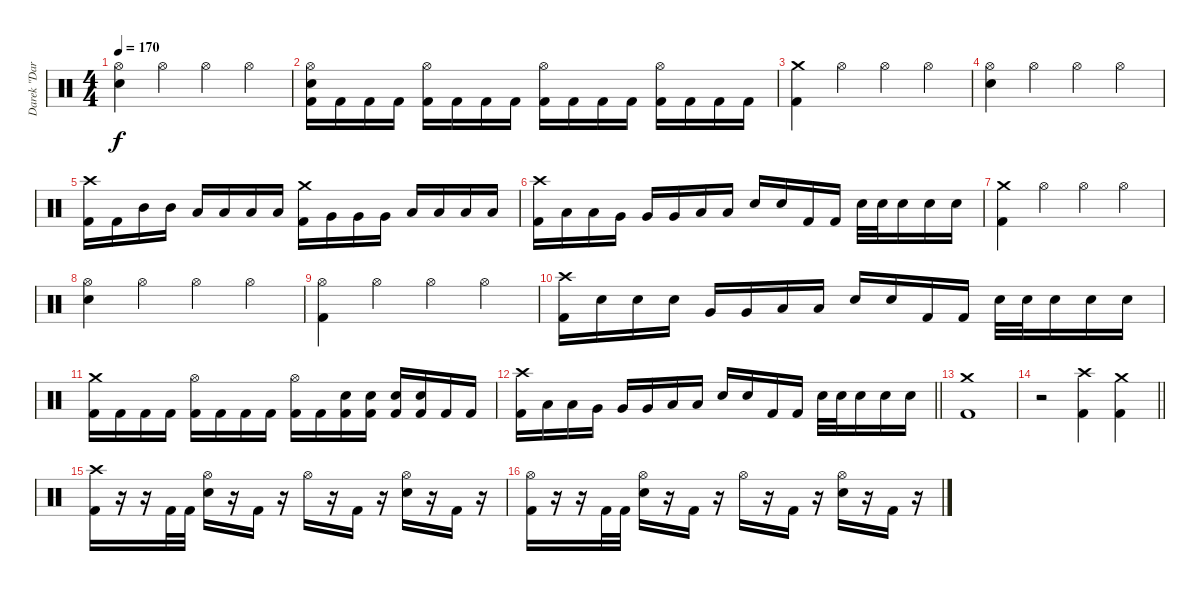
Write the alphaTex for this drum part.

\track ("Darek \"Daray\" Brzozowski " "Darek \"Dar") {instrument percussion}
\staff {score}
\articulation defaults
\ts (4 4)
\tempo 170
\clef neutral
\ks c
("Hi-Hat (open)" "Electric Snare (hit)").4{dy f} "Hi-Hat (open)".4 "Hi-Hat (open)".4 "Hi-Hat (open)".4 |
("Hi-Hat (open)" "Electric Snare (hit)" "Kick (hit) 2").16 "Kick (hit) 2".16 "Kick (hit) 2".16 "Kick (hit) 2".16 ("Hi-Hat (open)" "Kick (hit) 2").16 "Kick (hit) 2".16 "Kick (hit) 2".16 "Kick (hit) 2".16 ("Hi-Hat (open)" "Kick (hit) 2").16 "Kick (hit) 2".16 "Kick (hit) 2".16 "Kick (hit) 2".16 ("Hi-Hat (open)" "Kick (hit) 2").16 "Kick (hit) 2".16 "Kick (hit) 2".16 "Kick (hit) 2".16 |
("Crash medium (hit)" "Kick (hit) 2").4 "Hi-Hat (open)".4 "Hi-Hat (open)".4 "Hi-Hat (open)".4 |
("Hi-Hat (open)" "Electric Snare (hit)").4 "Hi-Hat (open)".4 "Hi-Hat (open)".4 "Hi-Hat (open)".4 |
("Crash high (hit)" "Kick (hit) 2").16 "Kick (hit) 2".16 "Mid Tom (hit)".16 "Mid Tom (hit)".16 "Low Tom (hit)".16 "Low Tom (hit)".16 "Low Tom (hit)".16 "Low Tom (hit)".16 ("Crash medium (hit)" "Kick (hit) 2").16 "Very Low Tom (hit)".16 "Very Low Tom (hit)".16 "Very Low Tom (hit)".16 "Low Floor Tom (hit)".16 "Low Floor Tom (hit)".16 "Low Floor Tom (hit)".16 "Low Floor Tom (hit)".16 |
("Crash high (hit)" "Kick (hit) 2").16 "Low Tom (hit)".16 "Low Tom (hit)".16 "Very Low Tom (hit)".16 "Very Low Tom (hit)".16 "Very Low Tom (hit)".16 "Low Floor Tom (hit)".16 "Low Floor Tom (hit)".16 "Electric Snare (hit)".16 "Electric Snare (hit)".16 "Kick (hit) 2".16 "Kick (hit) 2".16 "Electric Snare (hit)".32 "Electric Snare (hit)".32 "Electric Snare (hit)".16 "Electric Snare (hit)".16 "Electric Snare (hit)".16 |
("Crash medium (hit)" "Kick (hit) 2").4 "Hi-Hat (open)".4 "Hi-Hat (open)".4 "Hi-Hat (open)".4 |
("Hi-Hat (open)" "Electric Snare (hit)").4 "Hi-Hat (open)".4 "Hi-Hat (open)".4 "Hi-Hat (open)".4 |
("Hi-Hat (open)" "Kick (hit) 2").4 "Hi-Hat (open)".4 "Hi-Hat (open)".4 "Hi-Hat (open)".4 |
("Crash high (hit)" "Kick (hit) 2").16 "Electric Snare (hit)".16 "Electric Snare (hit)".16 "Electric Snare (hit)".16 "Very Low Tom (hit)".16 "Very Low Tom (hit)".16 "Low Floor Tom (hit)".16 "Low Floor Tom (hit)".16 "Electric Snare (hit)".16 "Electric Snare (hit)".16 "Kick (hit) 2".16 "Kick (hit) 2".16 "Electric Snare (hit)".32 "Electric Snare (hit)".32 "Electric Snare (hit)".16 "Electric Snare (hit)".16 "Electric Snare (hit)".16 |
("Crash medium (hit)" "Kick (hit) 2").16 "Kick (hit) 2".16 "Kick (hit) 2".16 "Kick (hit) 2".16 ("Hi-Hat (open)" "Kick (hit) 2").16 "Kick (hit) 2".16 "Kick (hit) 2".16 "Kick (hit) 2".16 ("Hi-Hat (open)" "Kick (hit) 2").16 "Kick (hit) 2".16 ("Electric Snare (hit)" "Kick (hit) 2").16 ("Electric Snare (hit)" "Kick (hit) 2").16 ("Electric Snare (hit)" "Kick (hit) 2").16 ("Electric Snare (hit)" "Kick (hit) 2").16 "Kick (hit) 2".16 "Kick (hit) 2".16 |
\barLineRight lightlight
("Crash high (hit)" "Kick (hit) 2").16 "Low Tom (hit)".16 "Low Tom (hit)".16 "Very Low Tom (hit)".16 "Very Low Tom (hit)".16 "Very Low Tom (hit)".16 "Low Floor Tom (hit)".16 "Low Floor Tom (hit)".16 "Electric Snare (hit)".16 "Electric Snare (hit)".16 "Kick (hit) 2".16 "Kick (hit) 2".16 "Electric Snare (hit)".32 "Electric Snare (hit)".32 "Electric Snare (hit)".16 "Electric Snare (hit)".16 "Electric Snare (hit)".16 |
("Crash medium (hit)" "Kick (hit) 2").1 |
\barLineRight lightlight
r.2 ("Crash high (hit)" "Kick (hit) 2").4 ("Crash medium (hit)" "Kick (hit) 2").4 |
("Crash high (hit)" "Kick (hit) 2").16 r.16 r.16 "Kick (hit) 2".32 "Kick (hit) 2".32 ("Hi-Hat (open)" "Electric Snare (hit)").16 r.16 "Kick (hit) 2".16 r.16 "Hi-Hat (open)".16 r.16 "Kick (hit) 2".16 r.16 ("Hi-Hat (open)" "Electric Snare (hit)").16 r.16 "Kick (hit) 2".16 r.16 |
("Hi-Hat (open)" "Kick (hit) 2").16 r.16 r.16 "Kick (hit) 2".32 "Kick (hit) 2".32 ("Hi-Hat (open)" "Electric Snare (hit)").16 r.16 "Kick (hit) 2".16 r.16 "Hi-Hat (open)".16 r.16 "Kick (hit) 2".16 r.16 ("Hi-Hat (open)" "Electric Snare (hit)").16 r.16 "Kick (hit) 2".16 r.16
